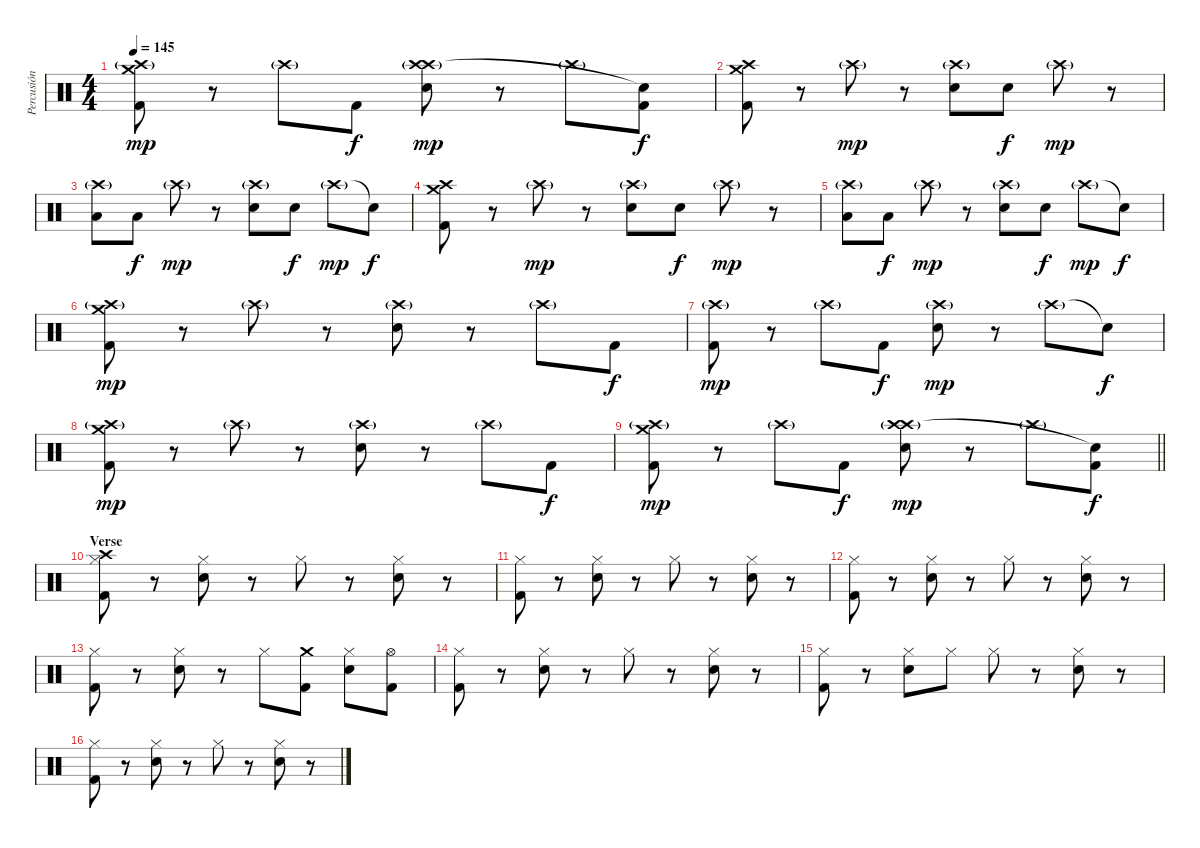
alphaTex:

\track ("Percusión" "Percusión") {instrument percussion}
\staff {score}
\articulation defaults
\ts (4 4)
\tempo 145
\clef neutral
\ks c
("Kick (hit) 2" "Crash high (hit)"{g} "Crash medium (hit)").8{dy mp} r.8 "Crash high (hit)"{g}.8 "Kick (hit) 2".8{dy f} ("Electric Snare (hit)" "Crash high (hit)"{g} "Crash high (hit)").8{dy mp} r.8 "Crash high (hit)"{g}.8 ("Kick (hit) 2" "Snare (hit)"{t}).8{dy f} |
("Kick (hit) 2" "Crash high (hit)" "Crash medium (hit)").8 r.8 "Crash high (hit)"{g}.8{dy mp} r.8 ("Electric Snare (hit)" "Crash high (hit)"{g}).8 "Electric Snare (hit)".8{dy f} "Crash high (hit)"{g}.8{dy mp} r.8 |
("Low Tom (hit)" "Crash high (hit)"{g}).8 "Low Tom (hit)".8{dy f} "Crash high (hit)"{g}.8{dy mp} r.8 ("Electric Snare (hit)" "Crash high (hit)"{g}).8 "Electric Snare (hit)".8{dy f} "Crash high (hit)"{g}.8{dy mp} "Snare (hit)"{t}.8{dy f} |
("Kick (hit) 2" "Crash high (hit)" "Crash medium (hit)").8 r.8 "Crash high (hit)"{g}.8{dy mp} r.8 ("Electric Snare (hit)" "Crash high (hit)"{g}).8 "Electric Snare (hit)".8{dy f} "Crash high (hit)"{g}.8{dy mp} r.8 |
("Low Tom (hit)" "Crash high (hit)"{g}).8 "Low Tom (hit)".8{dy f} "Crash high (hit)"{g}.8{dy mp} r.8 ("Electric Snare (hit)" "Crash high (hit)"{g}).8 "Electric Snare (hit)".8{dy f} "Crash high (hit)"{g}.8{dy mp} "Snare (hit)"{t}.8{dy f} |
("Kick (hit) 2" "Crash high (hit)"{g} "Crash medium (hit)").8{dy mp} r.8 "Crash high (hit)"{g}.8 r.8 ("Electric Snare (hit)" "Crash high (hit)"{g}).8 r.8 "Crash high (hit)"{g}.8 "Kick (hit) 2".8{dy f} |
("Kick (hit) 2" "Crash high (hit)"{g}).8{dy mp} r.8 "Crash high (hit)"{g}.8 "Kick (hit) 2".8{dy f} ("Electric Snare (hit)" "Crash high (hit)"{g}).8{dy mp} r.8 "Crash high (hit)"{g}.8 "Snare (hit)"{t}.8{dy f} |
("Kick (hit) 2" "Crash high (hit)"{g} "Crash medium (hit)").8{dy mp} r.8 "Crash high (hit)"{g}.8 r.8 ("Electric Snare (hit)" "Crash high (hit)"{g}).8 r.8 "Crash high (hit)"{g}.8 "Kick (hit) 2".8{dy f} |
\barLineRight lightlight
("Kick (hit) 2" "Crash high (hit)"{g} "Crash medium (hit)").8{dy mp} r.8 "Crash high (hit)"{g}.8 "Kick (hit) 2".8{dy f} ("Electric Snare (hit)" "Crash high (hit)"{g} "Crash high (hit)").8{dy mp} r.8 "Crash high (hit)"{g}.8 ("Kick (hit) 2" "Snare (hit)"{t}).8{dy f} |
\section ("" "Verse")
("Hi-Hat (closed)" "Kick (hit) 2" "Crash high (hit)").8 r.8 ("Hi-Hat (closed)" "Electric Snare (hit)").8 r.8 "Hi-Hat (closed)".8 r.8 ("Hi-Hat (closed)" "Electric Snare (hit)").8 r.8 |
("Hi-Hat (closed)" "Kick (hit) 2").8 r.8 ("Hi-Hat (closed)" "Electric Snare (hit)").8 r.8 "Hi-Hat (closed)".8 r.8 ("Hi-Hat (closed)" "Electric Snare (hit)").8 r.8 |
("Hi-Hat (closed)" "Kick (hit) 2").8 r.8 ("Hi-Hat (closed)" "Electric Snare (hit)").8 r.8 "Hi-Hat (closed)".8 r.8 ("Hi-Hat (closed)" "Electric Snare (hit)").8 r.8 |
("Hi-Hat (closed)" "Kick (hit) 2").8 r.8 ("Hi-Hat (closed)" "Electric Snare (hit)").8 r.8 "Hi-Hat (closed)".8 ("Kick (hit) 2" "Crash medium (hit)").8 ("Hi-Hat (closed)" "Electric Snare (hit)").8 ("Kick (hit) 2" "Hi-Hat (open)").8 |
("Hi-Hat (closed)" "Kick (hit) 2").8 r.8 ("Hi-Hat (closed)" "Electric Snare (hit)").8 r.8 "Hi-Hat (closed)".8 r.8 ("Hi-Hat (closed)" "Electric Snare (hit)").8 r.8 |
("Hi-Hat (closed)" "Kick (hit) 2").8 r.8 ("Hi-Hat (closed)" "Electric Snare (hit)").8 "Hi-Hat (closed)".8 "Hi-Hat (closed)".8 r.8 ("Hi-Hat (closed)" "Electric Snare (hit)").8 r.8 |
("Hi-Hat (closed)" "Kick (hit) 2").8 r.8 ("Hi-Hat (closed)" "Electric Snare (hit)").8 r.8 "Hi-Hat (closed)".8 r.8 ("Hi-Hat (closed)" "Electric Snare (hit)").8 r.8
